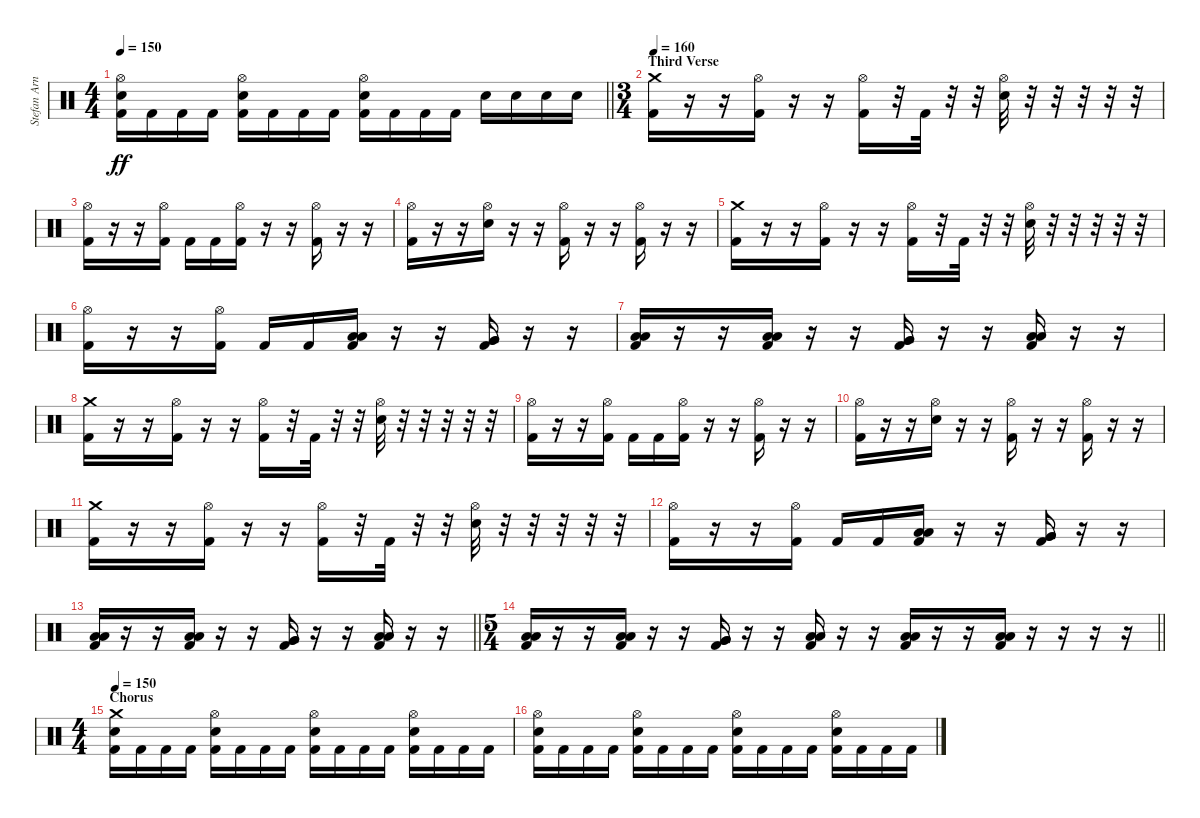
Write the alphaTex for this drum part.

\track ("Stefan Arnold" "Stefan Arn") {instrument percussion}
\staff {score}
\articulation defaults
\ts (4 4)
\tempo 150
\clef neutral
\barLineRight lightlight
\ks c
("Hi-Hat (open)" "Electric Snare (hit)" "Kick (hit) 2").16{dy ff} "Kick (hit) 2".16 "Kick (hit) 2".16 "Kick (hit) 2".16 ("Hi-Hat (open)" "Electric Snare (hit)" "Kick (hit) 2").16 "Kick (hit) 2".16 "Kick (hit) 2".16 "Kick (hit) 2".16 ("Hi-Hat (open)" "Electric Snare (hit)" "Kick (hit) 2").16 "Kick (hit) 2".16 "Kick (hit) 2".16 "Kick (hit) 2".16 "Electric Snare (hit)".16 "Electric Snare (hit)".16 "Electric Snare (hit)".16 "Electric Snare (hit)".16 |
\ts (3 4)
\section ("" "Third Verse")
\tempo 160
("Crash medium (hit)" "Kick (hit) 2").16 r.16 r.16 ("Hi-Hat (open)" "Kick (hit) 2").16 r.16 r.16 ("Hi-Hat (open)" "Kick (hit) 2").16 r.32 "Kick (hit) 2".32 r.32 r.32 ("Hi-Hat (open)" "Electric Snare (hit)").32 r.32 r.32 r.32 r.32 r.32 |
("Hi-Hat (open)" "Kick (hit) 2").16 r.16 r.16 ("Hi-Hat (open)" "Kick (hit) 2").16 "Kick (hit) 2".16 "Kick (hit) 2".16 ("Hi-Hat (open)" "Kick (hit) 2").16 r.16 r.16 ("Hi-Hat (open)" "Kick (hit) 2").16 r.16 r.16 |
("Hi-Hat (open)" "Kick (hit) 2").16 r.16 r.16 ("Hi-Hat (open)" "Electric Snare (hit)").16 r.16 r.16 ("Hi-Hat (open)" "Kick (hit) 2").16 r.16 r.16 ("Hi-Hat (open)" "Kick (hit) 2").16 r.16 r.16 |
("Crash medium (hit)" "Kick (hit) 2").16 r.16 r.16 ("Hi-Hat (open)" "Kick (hit) 2").16 r.16 r.16 ("Hi-Hat (open)" "Kick (hit) 2").16 r.32 "Kick (hit) 2".32 r.32 r.32 ("Hi-Hat (open)" "Electric Snare (hit)").32 r.32 r.32 r.32 r.32 r.32 |
("Hi-Hat (open)" "Kick (hit) 2").16 r.16 r.16 ("Hi-Hat (open)" "Kick (hit) 2").16 "Kick (hit) 2".16 "Kick (hit) 2".16 ("Low Tom (hit)" "Low Tom (hit)" "Kick (hit) 2").16 r.16 r.16 ("Very Low Tom (hit)" "Very Low Tom (hit)" "Kick (hit) 2").16 r.16 r.16 |
("Low Floor Tom (hit)" "Low Floor Tom (hit)" "Kick (hit) 2").16 r.16 r.16 ("Low Tom (hit)" "Low Tom (hit)" "Kick (hit) 2").16 r.16 r.16 ("Very Low Tom (hit)" "Very Low Tom (hit)" "Kick (hit) 2").16 r.16 r.16 ("Low Floor Tom (hit)" "Low Floor Tom (hit)" "Kick (hit) 2").16 r.16 r.16 |
("Crash medium (hit)" "Kick (hit) 2").16 r.16 r.16 ("Hi-Hat (open)" "Kick (hit) 2").16 r.16 r.16 ("Hi-Hat (open)" "Kick (hit) 2").16 r.32 "Kick (hit) 2".32 r.32 r.32 ("Hi-Hat (open)" "Electric Snare (hit)").32 r.32 r.32 r.32 r.32 r.32 |
("Hi-Hat (open)" "Kick (hit) 2").16 r.16 r.16 ("Hi-Hat (open)" "Kick (hit) 2").16 "Kick (hit) 2".16 "Kick (hit) 2".16 ("Hi-Hat (open)" "Kick (hit) 2").16 r.16 r.16 ("Hi-Hat (open)" "Kick (hit) 2").16 r.16 r.16 |
("Hi-Hat (open)" "Kick (hit) 2").16 r.16 r.16 ("Hi-Hat (open)" "Electric Snare (hit)").16 r.16 r.16 ("Hi-Hat (open)" "Kick (hit) 2").16 r.16 r.16 ("Hi-Hat (open)" "Kick (hit) 2").16 r.16 r.16 |
("Crash medium (hit)" "Kick (hit) 2").16 r.16 r.16 ("Hi-Hat (open)" "Kick (hit) 2").16 r.16 r.16 ("Hi-Hat (open)" "Kick (hit) 2").16 r.32 "Kick (hit) 2".32 r.32 r.32 ("Hi-Hat (open)" "Electric Snare (hit)").32 r.32 r.32 r.32 r.32 r.32 |
("Hi-Hat (open)" "Kick (hit) 2").16 r.16 r.16 ("Hi-Hat (open)" "Kick (hit) 2").16 "Kick (hit) 2".16 "Kick (hit) 2".16 ("Low Tom (hit)" "Low Tom (hit)" "Kick (hit) 2").16 r.16 r.16 ("Very Low Tom (hit)" "Very Low Tom (hit)" "Kick (hit) 2").16 r.16 r.16 |
\barLineRight lightlight
("Low Floor Tom (hit)" "Low Floor Tom (hit)" "Kick (hit) 2").16 r.16 r.16 ("Low Tom (hit)" "Low Tom (hit)" "Kick (hit) 2").16 r.16 r.16 ("Very Low Tom (hit)" "Very Low Tom (hit)" "Kick (hit) 2").16 r.16 r.16 ("Low Floor Tom (hit)" "Low Floor Tom (hit)" "Kick (hit) 2").16 r.16 r.16 |
\ts (5 4)
\barLineRight lightlight
("Low Floor Tom (hit)" "Low Floor Tom (hit)" "Kick (hit) 2").16 r.16 r.16 ("Low Tom (hit)" "Low Tom (hit)" "Kick (hit) 2").16 r.16 r.16 ("Very Low Tom (hit)" "Very Low Tom (hit)" "Kick (hit) 2").16 r.16 r.16 ("Low Floor Tom (hit)" "Low Floor Tom (hit)" "Kick (hit) 2").16 r.16 r.16 ("Low Floor Tom (hit)" "Low Floor Tom (hit)" "Kick (hit) 2").16 r.16 r.16 ("Low Tom (hit)" "Low Tom (hit)" "Kick (hit) 2").16 r.16 r.16 r.16 r.16 |
\ts (4 4)
\section ("" "Chorus")
\tempo 150
("Crash medium (hit)" "Electric Snare (hit)" "Kick (hit) 2").16 "Kick (hit) 2".16 "Kick (hit) 2".16 "Kick (hit) 2".16 ("Hi-Hat (open)" "Electric Snare (hit)" "Kick (hit) 2").16 "Kick (hit) 2".16 "Kick (hit) 2".16 "Kick (hit) 2".16 ("Hi-Hat (open)" "Electric Snare (hit)" "Kick (hit) 2").16 "Kick (hit) 2".16 "Kick (hit) 2".16 "Kick (hit) 2".16 ("Hi-Hat (open)" "Electric Snare (hit)" "Kick (hit) 2").16 "Kick (hit) 2".16 "Kick (hit) 2".16 "Kick (hit) 2".16 |
("Hi-Hat (open)" "Electric Snare (hit)" "Kick (hit) 2").16 "Kick (hit) 2".16 "Kick (hit) 2".16 "Kick (hit) 2".16 ("Hi-Hat (open)" "Electric Snare (hit)" "Kick (hit) 2").16 "Kick (hit) 2".16 "Kick (hit) 2".16 "Kick (hit) 2".16 ("Hi-Hat (open)" "Electric Snare (hit)" "Kick (hit) 2").16 "Kick (hit) 2".16 "Kick (hit) 2".16 "Kick (hit) 2".16 ("Hi-Hat (open)" "Electric Snare (hit)" "Kick (hit) 2").16 "Kick (hit) 2".16 "Kick (hit) 2".16 "Kick (hit) 2".16
